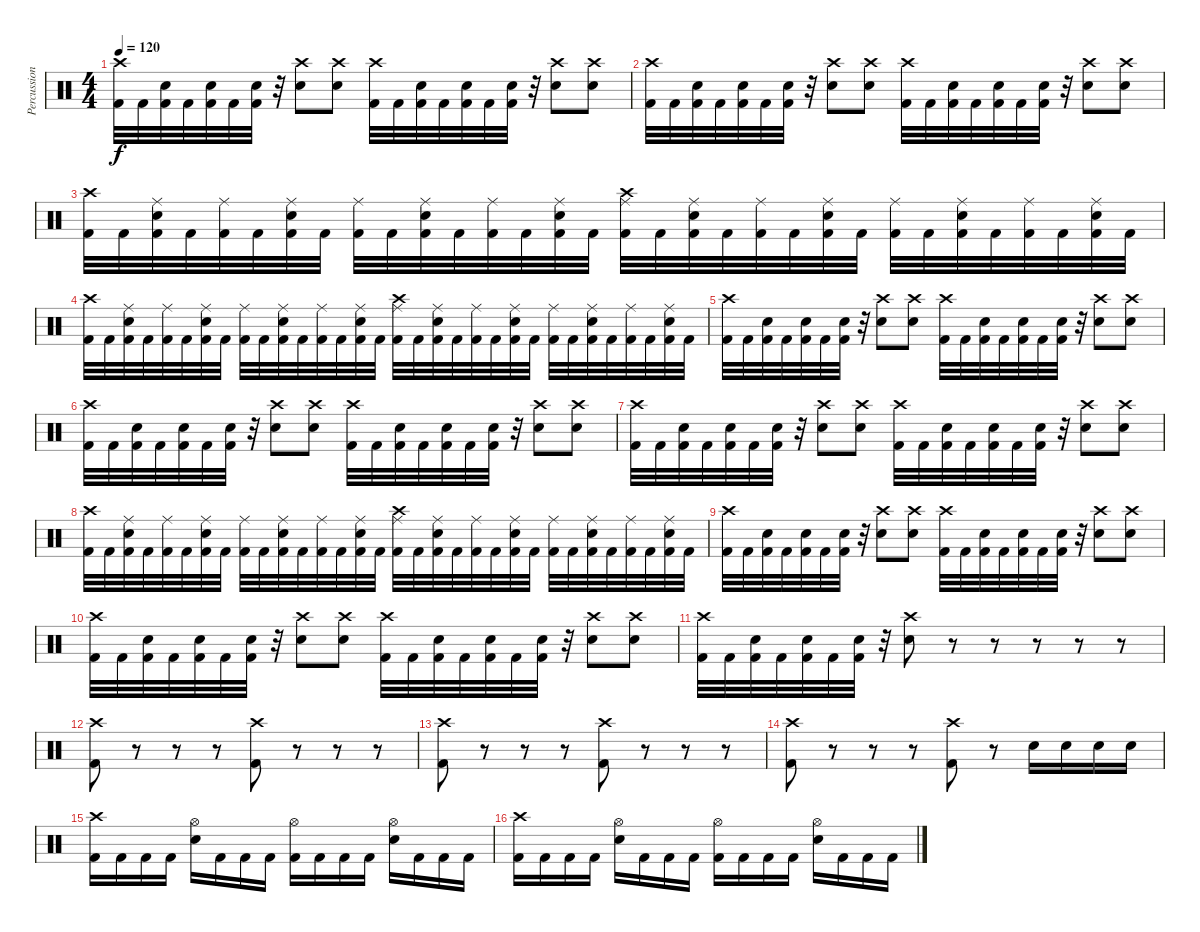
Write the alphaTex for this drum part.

\track ("Percussion" "Percussion") {instrument percussion}
\staff {score}
\articulation defaults
\ts (4 4)
\tempo 120
\clef neutral
\ks c
("Crash high (hit)" "Kick (hit) 2").32{dy f} "Kick (hit) 2".32 ("Snare (hit) 2" "Kick (hit) 2").32 "Kick (hit) 2".32 ("Snare (hit) 2" "Kick (hit) 2").32 "Kick (hit) 2".32 ("Snare (hit) 2" "Kick (hit) 2").32 r.32 ("Crash high (hit)" "Snare (hit) 2").8 ("Crash high (hit)" "Snare (hit) 2").8 ("Crash high (hit)" "Kick (hit) 2").32 "Kick (hit) 2".32 ("Snare (hit) 2" "Kick (hit) 2").32 "Kick (hit) 2".32 ("Snare (hit) 2" "Kick (hit) 2").32 "Kick (hit) 2".32 ("Snare (hit) 2" "Kick (hit) 2").32 r.32 ("Crash high (hit)" "Snare (hit) 2").8 ("Crash high (hit)" "Snare (hit) 2").8 |
("Crash high (hit)" "Kick (hit) 2").32 "Kick (hit) 2".32 ("Snare (hit) 2" "Kick (hit) 2").32 "Kick (hit) 2".32 ("Snare (hit) 2" "Kick (hit) 2").32 "Kick (hit) 2".32 ("Snare (hit) 2" "Kick (hit) 2").32 r.32 ("Crash high (hit)" "Snare (hit) 2").8 ("Crash high (hit)" "Snare (hit) 2").8 ("Crash high (hit)" "Kick (hit) 2").32 "Kick (hit) 2".32 ("Snare (hit) 2" "Kick (hit) 2").32 "Kick (hit) 2".32 ("Snare (hit) 2" "Kick (hit) 2").32 "Kick (hit) 2".32 ("Snare (hit) 2" "Kick (hit) 2").32 r.32 ("Crash high (hit)" "Snare (hit) 2").8 ("Crash high (hit)" "Snare (hit) 2").8 |
("Crash high (hit)" "Kick (hit) 2").32 "Kick (hit) 2".32 ("Ride (middle)" "Snare (hit) 2" "Kick (hit) 2").32 "Kick (hit) 2".32 ("Ride (middle)" "Kick (hit) 2").32 "Kick (hit) 2".32 ("Ride (middle)" "Snare (hit) 2" "Kick (hit) 2").32 "Kick (hit) 2".32 ("Ride (middle)" "Kick (hit) 2").32 "Kick (hit) 2".32 ("Ride (middle)" "Snare (hit) 2" "Kick (hit) 2").32 "Kick (hit) 2".32 ("Ride (middle)" "Kick (hit) 2").32 "Kick (hit) 2".32 ("Ride (middle)" "Snare (hit) 2" "Kick (hit) 2").32 "Kick (hit) 2".32 ("Crash high (hit)" "Ride (middle)" "Kick (hit) 2").32 "Kick (hit) 2".32 ("Ride (middle)" "Snare (hit) 2" "Kick (hit) 2").32 "Kick (hit) 2".32 ("Ride (middle)" "Kick (hit) 2").32 "Kick (hit) 2".32 ("Ride (middle)" "Snare (hit) 2" "Kick (hit) 2").32 "Kick (hit) 2".32 ("Ride (middle)" "Kick (hit) 2").32 "Kick (hit) 2".32 ("Ride (middle)" "Snare (hit) 2" "Kick (hit) 2").32 "Kick (hit) 2".32 ("Ride (middle)" "Kick (hit) 2").32 "Kick (hit) 2".32 ("Ride (middle)" "Snare (hit) 2" "Kick (hit) 2").32 "Kick (hit) 2".32 |
("Crash high (hit)" "Kick (hit) 2").32 "Kick (hit) 2".32 ("Ride (middle)" "Snare (hit) 2" "Kick (hit) 2").32 "Kick (hit) 2".32 ("Ride (middle)" "Kick (hit) 2").32 "Kick (hit) 2".32 ("Ride (middle)" "Snare (hit) 2" "Kick (hit) 2").32 "Kick (hit) 2".32 ("Ride (middle)" "Kick (hit) 2").32 "Kick (hit) 2".32 ("Ride (middle)" "Snare (hit) 2" "Kick (hit) 2").32 "Kick (hit) 2".32 ("Ride (middle)" "Kick (hit) 2").32 "Kick (hit) 2".32 ("Ride (middle)" "Snare (hit) 2" "Kick (hit) 2").32 "Kick (hit) 2".32 ("Crash high (hit)" "Ride (middle)" "Kick (hit) 2").32 "Kick (hit) 2".32 ("Ride (middle)" "Snare (hit) 2" "Kick (hit) 2").32 "Kick (hit) 2".32 ("Ride (middle)" "Kick (hit) 2").32 "Kick (hit) 2".32 ("Ride (middle)" "Snare (hit) 2" "Kick (hit) 2").32 "Kick (hit) 2".32 ("Ride (middle)" "Kick (hit) 2").32 "Kick (hit) 2".32 ("Ride (middle)" "Snare (hit) 2" "Kick (hit) 2").32 "Kick (hit) 2".32 ("Ride (middle)" "Kick (hit) 2").32 "Kick (hit) 2".32 ("Ride (middle)" "Snare (hit) 2" "Kick (hit) 2").32 "Kick (hit) 2".32 |
("Crash high (hit)" "Kick (hit) 2").32 "Kick (hit) 2".32 ("Snare (hit) 2" "Kick (hit) 2").32 "Kick (hit) 2".32 ("Snare (hit) 2" "Kick (hit) 2").32 "Kick (hit) 2".32 ("Snare (hit) 2" "Kick (hit) 2").32 r.32 ("Crash high (hit)" "Snare (hit) 2").8 ("Crash high (hit)" "Snare (hit) 2").8 ("Crash high (hit)" "Kick (hit) 2").32 "Kick (hit) 2".32 ("Snare (hit) 2" "Kick (hit) 2").32 "Kick (hit) 2".32 ("Snare (hit) 2" "Kick (hit) 2").32 "Kick (hit) 2".32 ("Snare (hit) 2" "Kick (hit) 2").32 r.32 ("Crash high (hit)" "Snare (hit) 2").8 ("Crash high (hit)" "Snare (hit) 2").8 |
("Crash high (hit)" "Kick (hit) 2").32 "Kick (hit) 2".32 ("Snare (hit) 2" "Kick (hit) 2").32 "Kick (hit) 2".32 ("Snare (hit) 2" "Kick (hit) 2").32 "Kick (hit) 2".32 ("Snare (hit) 2" "Kick (hit) 2").32 r.32 ("Crash high (hit)" "Snare (hit) 2").8 ("Crash high (hit)" "Snare (hit) 2").8 ("Crash high (hit)" "Kick (hit) 2").32 "Kick (hit) 2".32 ("Snare (hit) 2" "Kick (hit) 2").32 "Kick (hit) 2".32 ("Snare (hit) 2" "Kick (hit) 2").32 "Kick (hit) 2".32 ("Snare (hit) 2" "Kick (hit) 2").32 r.32 ("Crash high (hit)" "Snare (hit) 2").8 ("Crash high (hit)" "Snare (hit) 2").8 |
("Crash high (hit)" "Kick (hit) 2").32 "Kick (hit) 2".32 ("Snare (hit) 2" "Kick (hit) 2").32 "Kick (hit) 2".32 ("Snare (hit) 2" "Kick (hit) 2").32 "Kick (hit) 2".32 ("Snare (hit) 2" "Kick (hit) 2").32 r.32 ("Crash high (hit)" "Snare (hit) 2").8 ("Crash high (hit)" "Snare (hit) 2").8 ("Crash high (hit)" "Kick (hit) 2").32 "Kick (hit) 2".32 ("Snare (hit) 2" "Kick (hit) 2").32 "Kick (hit) 2".32 ("Snare (hit) 2" "Kick (hit) 2").32 "Kick (hit) 2".32 ("Snare (hit) 2" "Kick (hit) 2").32 r.32 ("Crash high (hit)" "Snare (hit) 2").8 ("Crash high (hit)" "Snare (hit) 2").8 |
("Crash high (hit)" "Kick (hit) 2").32 "Kick (hit) 2".32 ("Ride (middle)" "Snare (hit) 2" "Kick (hit) 2").32 "Kick (hit) 2".32 ("Ride (middle)" "Kick (hit) 2").32 "Kick (hit) 2".32 ("Ride (middle)" "Snare (hit) 2" "Kick (hit) 2").32 "Kick (hit) 2".32 ("Ride (middle)" "Kick (hit) 2").32 "Kick (hit) 2".32 ("Ride (middle)" "Snare (hit) 2" "Kick (hit) 2").32 "Kick (hit) 2".32 ("Ride (middle)" "Kick (hit) 2").32 "Kick (hit) 2".32 ("Ride (middle)" "Snare (hit) 2" "Kick (hit) 2").32 "Kick (hit) 2".32 ("Crash high (hit)" "Ride (middle)" "Kick (hit) 2").32 "Kick (hit) 2".32 ("Ride (middle)" "Snare (hit) 2" "Kick (hit) 2").32 "Kick (hit) 2".32 ("Ride (middle)" "Kick (hit) 2").32 "Kick (hit) 2".32 ("Ride (middle)" "Snare (hit) 2" "Kick (hit) 2").32 "Kick (hit) 2".32 ("Ride (middle)" "Kick (hit) 2").32 "Kick (hit) 2".32 ("Ride (middle)" "Snare (hit) 2" "Kick (hit) 2").32 "Kick (hit) 2".32 ("Ride (middle)" "Kick (hit) 2").32 "Kick (hit) 2".32 ("Ride (middle)" "Snare (hit) 2" "Kick (hit) 2").32 "Kick (hit) 2".32 |
("Crash high (hit)" "Kick (hit) 2").32 "Kick (hit) 2".32 ("Snare (hit) 2" "Kick (hit) 2").32 "Kick (hit) 2".32 ("Snare (hit) 2" "Kick (hit) 2").32 "Kick (hit) 2".32 ("Snare (hit) 2" "Kick (hit) 2").32 r.32 ("Crash high (hit)" "Snare (hit) 2").8 ("Crash high (hit)" "Snare (hit) 2").8 ("Crash high (hit)" "Kick (hit) 2").32 "Kick (hit) 2".32 ("Snare (hit) 2" "Kick (hit) 2").32 "Kick (hit) 2".32 ("Snare (hit) 2" "Kick (hit) 2").32 "Kick (hit) 2".32 ("Snare (hit) 2" "Kick (hit) 2").32 r.32 ("Crash high (hit)" "Snare (hit) 2").8 ("Crash high (hit)" "Snare (hit) 2").8 |
("Crash high (hit)" "Kick (hit) 2").32 "Kick (hit) 2".32 ("Snare (hit) 2" "Kick (hit) 2").32 "Kick (hit) 2".32 ("Snare (hit) 2" "Kick (hit) 2").32 "Kick (hit) 2".32 ("Snare (hit) 2" "Kick (hit) 2").32 r.32 ("Crash high (hit)" "Snare (hit) 2").8 ("Crash high (hit)" "Snare (hit) 2").8 ("Crash high (hit)" "Kick (hit) 2").32 "Kick (hit) 2".32 ("Snare (hit) 2" "Kick (hit) 2").32 "Kick (hit) 2".32 ("Snare (hit) 2" "Kick (hit) 2").32 "Kick (hit) 2".32 ("Snare (hit) 2" "Kick (hit) 2").32 r.32 ("Crash high (hit)" "Snare (hit) 2").8 ("Crash high (hit)" "Snare (hit) 2").8 |
("Crash high (hit)" "Kick (hit) 2").32 "Kick (hit) 2".32 ("Snare (hit) 2" "Kick (hit) 2").32 "Kick (hit) 2".32 ("Snare (hit) 2" "Kick (hit) 2").32 "Kick (hit) 2".32 ("Snare (hit) 2" "Kick (hit) 2").32 r.32 ("Crash high (hit)" "Snare (hit) 2").8 r.8 r.8 r.8 r.8 r.8 |
("Crash high (hit)" "Kick (hit) 2").8 r.8 r.8 r.8 ("Crash high (hit)" "Kick (hit) 2").8 r.8 r.8 r.8 |
("Crash high (hit)" "Kick (hit) 2").8 r.8 r.8 r.8 ("Crash high (hit)" "Kick (hit) 2").8 r.8 r.8 r.8 |
("Crash high (hit)" "Kick (hit) 2").8 r.8 r.8 r.8 ("Crash high (hit)" "Kick (hit) 2").8 r.8 "Electric Snare (hit)".16 "Electric Snare (hit)".16 "Electric Snare (hit)".16 "Electric Snare (hit)".16 |
("Crash high (hit)" "Kick (hit) 2").16 "Kick (hit) 2".16 "Kick (hit) 2".16 "Kick (hit) 2".16 ("Hi-Hat (open)" "Electric Snare (hit)").16 "Kick (hit) 2".16 "Kick (hit) 2".16 "Kick (hit) 2".16 ("Hi-Hat (open)" "Kick (hit) 2").16 "Kick (hit) 2".16 "Kick (hit) 2".16 "Kick (hit) 2".16 ("Hi-Hat (open)" "Electric Snare (hit)").16 "Kick (hit) 2".16 "Kick (hit) 2".16 "Kick (hit) 2".16 |
("Crash high (hit)" "Kick (hit) 2").16 "Kick (hit) 2".16 "Kick (hit) 2".16 "Kick (hit) 2".16 ("Hi-Hat (open)" "Electric Snare (hit)").16 "Kick (hit) 2".16 "Kick (hit) 2".16 "Kick (hit) 2".16 ("Hi-Hat (open)" "Kick (hit) 2").16 "Kick (hit) 2".16 "Kick (hit) 2".16 "Kick (hit) 2".16 ("Hi-Hat (open)" "Electric Snare (hit)").16 "Kick (hit) 2".16 "Kick (hit) 2".16 "Kick (hit) 2".16
